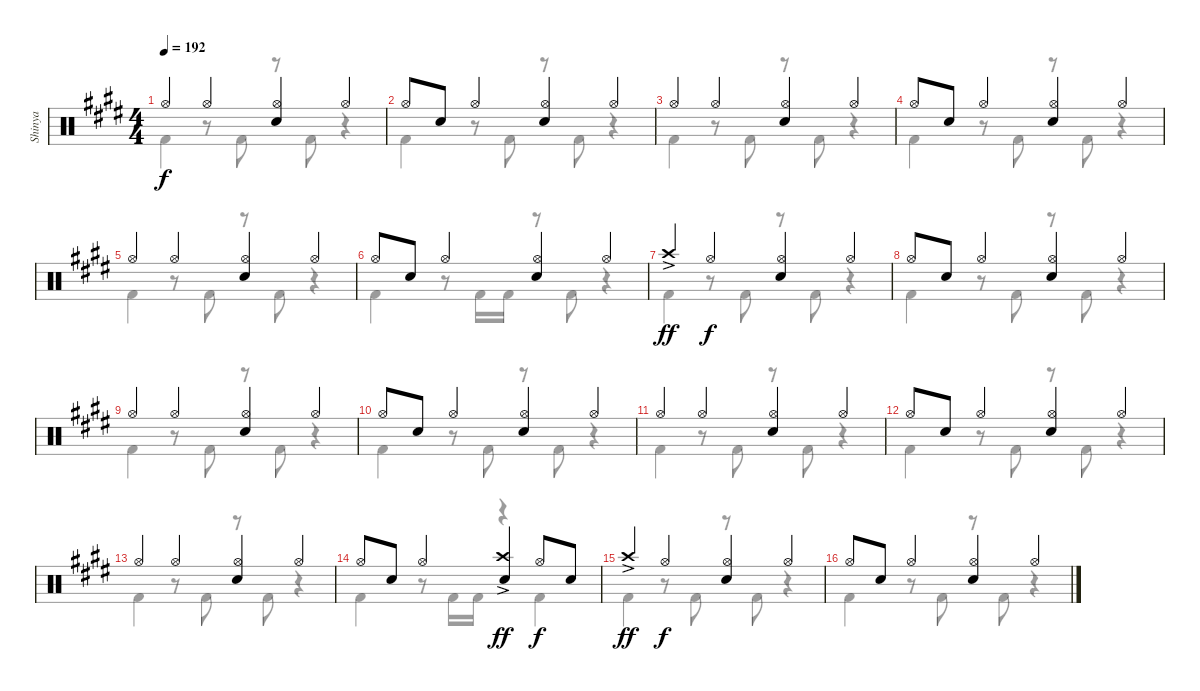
\track ("Shinya" "Shinya") {instrument percussion}
\staff {score}
\articulation defaults
\voice
\ts (4 4)
\tempo 192
\clef neutral
\ks c#minor "Hi-Hat (open)".4{dy f} "Hi-Hat (open)".4
("Hi-Hat (open)" "Snare (hit) 2").4 "Hi-Hat (open)".4 |
"Hi-Hat (open)".8 "Snare (hit) 2".8 "Hi-Hat (open)".4 ("Hi-Hat (open)" "Snare (hit) 2").4 "Hi-Hat (open)".4 |
"Hi-Hat (open)".4 "Hi-Hat (open)".4 ("Hi-Hat (open)" "Snare (hit) 2").4 "Hi-Hat (open)".4 |
"Hi-Hat (open)".8 "Snare (hit) 2".8 "Hi-Hat (open)".4 ("Hi-Hat (open)" "Snare (hit) 2").4 "Hi-Hat (open)".4 |
"Hi-Hat (open)".4 "Hi-Hat (open)".4 ("Hi-Hat (open)" "Snare (hit) 2").4 "Hi-Hat (open)".4 |
"Hi-Hat (open)".8 "Snare (hit) 2".8 "Hi-Hat (open)".4 ("Hi-Hat (open)" "Snare (hit) 2").4 "Hi-Hat (open)".4 |
"Crash high (hit)"{ac}.4{dy ff} "Hi-Hat (open)".4{dy f} ("Hi-Hat (open)" "Snare (hit) 2").4 "Hi-Hat (open)".4 |
"Hi-Hat (open)".8 "Snare (hit) 2".8 "Hi-Hat (open)".4 ("Hi-Hat (open)" "Snare (hit) 2").4 "Hi-Hat (open)".4 |
"Hi-Hat (open)".4 "Hi-Hat (open)".4 ("Hi-Hat (open)" "Snare (hit) 2").4 "Hi-Hat (open)".4 |
"Hi-Hat (open)".8 "Snare (hit) 2".8 "Hi-Hat (open)".4 ("Hi-Hat (open)" "Snare (hit) 2").4 "Hi-Hat (open)".4 |
"Hi-Hat (open)".4 "Hi-Hat (open)".4 ("Hi-Hat (open)" "Snare (hit) 2").4 "Hi-Hat (open)".4 |
"Hi-Hat (open)".8 "Snare (hit) 2".8 "Hi-Hat (open)".4 ("Hi-Hat (open)" "Snare (hit) 2").4 "Hi-Hat (open)".4 |
"Hi-Hat (open)".4 "Hi-Hat (open)".4 ("Hi-Hat (open)" "Snare (hit) 2").4 "Hi-Hat (open)".4 |
"Hi-Hat (open)".8 "Snare (hit) 2".8 "Hi-Hat (open)".4 ("Crash high (hit)"{ac} "Snare (hit) 2").4{dy ff} "Hi-Hat (open)".8{dy f} "Snare (hit) 2".8 |
"Crash high (hit)"{ac}.4{dy ff} "Hi-Hat (open)".4{dy f} ("Hi-Hat (open)" "Snare (hit) 2").4 "Hi-Hat (open)".4 |
"Hi-Hat (open)".8 "Snare (hit) 2".8 "Hi-Hat (open)".4 ("Hi-Hat (open)" "Snare (hit) 2").4 "Hi-Hat (open)".4
\voice
\clef neutral
\ottava regular
\simile none
\ks c#minor "Kick (hit) 2".4{dy f}
r.8 "Kick (hit) 2".8 r.8 "Kick (hit) 2".8 r.4 |
"Kick (hit) 2".4 r.8 "Kick (hit) 2".8 r.8 "Kick (hit) 2".8 r.4 |
"Kick (hit) 2".4 r.8 "Kick (hit) 2".8 r.8 "Kick (hit) 2".8 r.4 |
"Kick (hit) 2".4 r.8 "Kick (hit) 2".8 r.8 "Kick (hit) 2".8 r.4 |
"Kick (hit) 2".4 r.8 "Kick (hit) 2".8 r.8 "Kick (hit) 2".8 r.4 |
"Kick (hit) 2".4 r.8 "Kick (hit) 2".16 "Kick (hit) 2".16 r.8 "Kick (hit) 2".8 r.4 |
"Kick (hit) 2".4 r.8 "Kick (hit) 2".8 r.8 "Kick (hit) 2".8 r.4 |
"Kick (hit) 2".4 r.8 "Kick (hit) 2".8 r.8 "Kick (hit) 2".8 r.4 |
"Kick (hit) 2".4 r.8 "Kick (hit) 2".8 r.8 "Kick (hit) 2".8 r.4 |
"Kick (hit) 2".4 r.8 "Kick (hit) 2".8 r.8 "Kick (hit) 2".8 r.4 |
"Kick (hit) 2".4 r.8 "Kick (hit) 2".8 r.8 "Kick (hit) 2".8 r.4 |
"Kick (hit) 2".4 r.8 "Kick (hit) 2".8 r.8 "Kick (hit) 2".8 r.4 |
"Kick (hit) 2".4 r.8 "Kick (hit) 2".8 r.8 "Kick (hit) 2".8 r.4 |
"Kick (hit) 2".4 r.8 "Kick (hit) 2".16 "Kick (hit) 2".16 r.4 "Kick (hit) 2".4 |
"Kick (hit) 2".4 r.8 "Kick (hit) 2".8 r.8 "Kick (hit) 2".8 r.4 |
"Kick (hit) 2".4 r.8 "Kick (hit) 2".8 r.8 "Kick (hit) 2".8 r.4
